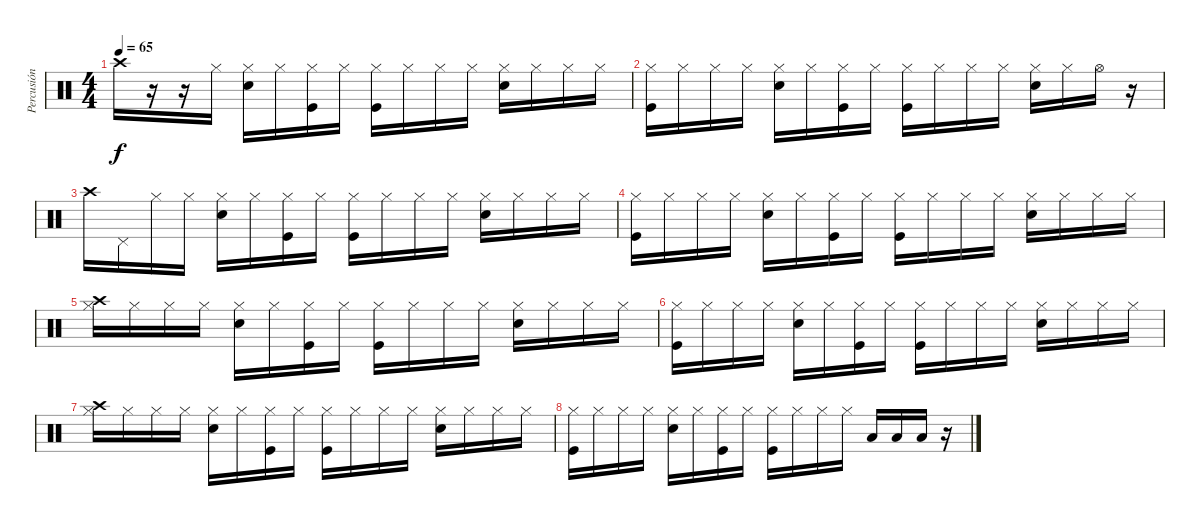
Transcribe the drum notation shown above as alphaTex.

\track ("Percusión" "Percusión") {instrument percussion}
\staff {score}
\articulation defaults
\ts (4 4)
\tempo 65
\clef neutral
\ks c "Crash high (hit)".16{dy f}
r.16 r.16 "Hi-Hat (closed)".16 ("Hi-Hat (closed)" "Snare (hit) 2").16 "Hi-Hat (closed)".16 ("Hi-Hat (closed)" "Kick (hit)").16 "Hi-Hat (closed)".16 ("Hi-Hat (closed)" "Kick (hit)").16 "Hi-Hat (closed)".16 "Hi-Hat (closed)".16 "Hi-Hat (closed)".16 ("Hi-Hat (closed)" "Snare (hit) 2").16 "Hi-Hat (closed)".16 "Hi-Hat (closed)".16 "Hi-Hat (closed)".16 |
("Hi-Hat (closed)" "Kick (hit)").16 "Hi-Hat (closed)".16 "Hi-Hat (closed)".16 "Hi-Hat (closed)".16 ("Hi-Hat (closed)" "Snare (hit) 2").16 "Hi-Hat (closed)".16 ("Hi-Hat (closed)" "Kick (hit)").16 "Hi-Hat (closed)".16 ("Hi-Hat (closed)" "Kick (hit)").16 "Hi-Hat (closed)".16 "Hi-Hat (closed)".16 "Hi-Hat (closed)".16 ("Hi-Hat (closed)" "Snare (hit) 2").16 "Hi-Hat (closed)".16 "Hi-Hat (open)".16 r.16 |
"Crash high (hit)".16 "Pedal Hi-Hat (hit)".16 "Hi-Hat (closed)".16 "Hi-Hat (closed)".16 ("Hi-Hat (closed)" "Snare (hit) 2").16 "Hi-Hat (closed)".16 ("Hi-Hat (closed)" "Kick (hit)").16 "Hi-Hat (closed)".16 ("Hi-Hat (closed)" "Kick (hit)").16 "Hi-Hat (closed)".16 "Hi-Hat (closed)".16 "Hi-Hat (closed)".16 ("Hi-Hat (closed)" "Snare (hit) 2").16 "Hi-Hat (closed)".16 "Hi-Hat (closed)".16 "Hi-Hat (closed)".16 |
("Hi-Hat (closed)" "Kick (hit)").16 "Hi-Hat (closed)".16 "Hi-Hat (closed)".16 "Hi-Hat (closed)".16 ("Hi-Hat (closed)" "Snare (hit) 2").16 "Hi-Hat (closed)".16 ("Hi-Hat (closed)" "Kick (hit)").16 "Hi-Hat (closed)".16 ("Hi-Hat (closed)" "Kick (hit)").16 "Hi-Hat (closed)".16 "Hi-Hat (closed)".16 "Hi-Hat (closed)".16 ("Hi-Hat (closed)" "Snare (hit) 2").16 "Hi-Hat (closed)".16 "Hi-Hat (closed)".16 "Hi-Hat (closed)".16 |
("Hi-Hat (closed)" "Crash high (hit)").16 "Hi-Hat (closed)".16 "Hi-Hat (closed)".16 "Hi-Hat (closed)".16 ("Hi-Hat (closed)" "Snare (hit) 2").16 "Hi-Hat (closed)".16 ("Hi-Hat (closed)" "Kick (hit)").16 "Hi-Hat (closed)".16 ("Hi-Hat (closed)" "Kick (hit)").16 "Hi-Hat (closed)".16 "Hi-Hat (closed)".16 "Hi-Hat (closed)".16 ("Hi-Hat (closed)" "Snare (hit) 2").16 "Hi-Hat (closed)".16 "Hi-Hat (closed)".16 "Hi-Hat (closed)".16 |
("Hi-Hat (closed)" "Kick (hit)").16 "Hi-Hat (closed)".16 "Hi-Hat (closed)".16 "Hi-Hat (closed)".16 ("Hi-Hat (closed)" "Snare (hit) 2").16 "Hi-Hat (closed)".16 ("Hi-Hat (closed)" "Kick (hit)").16 "Hi-Hat (closed)".16 ("Hi-Hat (closed)" "Kick (hit)").16 "Hi-Hat (closed)".16 "Hi-Hat (closed)".16 "Hi-Hat (closed)".16 ("Hi-Hat (closed)" "Snare (hit) 2").16 "Hi-Hat (closed)".16 "Hi-Hat (closed)".16 "Hi-Hat (closed)".16 |
("Hi-Hat (closed)" "Crash high (hit)").16 "Hi-Hat (closed)".16 "Hi-Hat (closed)".16 "Hi-Hat (closed)".16 ("Hi-Hat (closed)" "Snare (hit) 2").16 "Hi-Hat (closed)".16 ("Hi-Hat (closed)" "Kick (hit)").16 "Hi-Hat (closed)".16 ("Hi-Hat (closed)" "Kick (hit)").16 "Hi-Hat (closed)".16 "Hi-Hat (closed)".16 "Hi-Hat (closed)".16 ("Hi-Hat (closed)" "Snare (hit) 2").16 "Hi-Hat (closed)".16 "Hi-Hat (closed)".16 "Hi-Hat (closed)".16 |
("Hi-Hat (closed)" "Kick (hit)").16 "Hi-Hat (closed)".16 "Hi-Hat (closed)".16 "Hi-Hat (closed)".16 ("Hi-Hat (closed)" "Snare (hit) 2").16 "Hi-Hat (closed)".16 ("Hi-Hat (closed)" "Kick (hit)").16 "Hi-Hat (closed)".16 ("Hi-Hat (closed)" "Kick (hit)").16 "Hi-Hat (closed)".16 "Hi-Hat (closed)".16 "Hi-Hat (closed)".16 "Low Tom (hit)".16 "Low Tom (hit)".16 "Low Floor Tom (hit)".16 r.16
